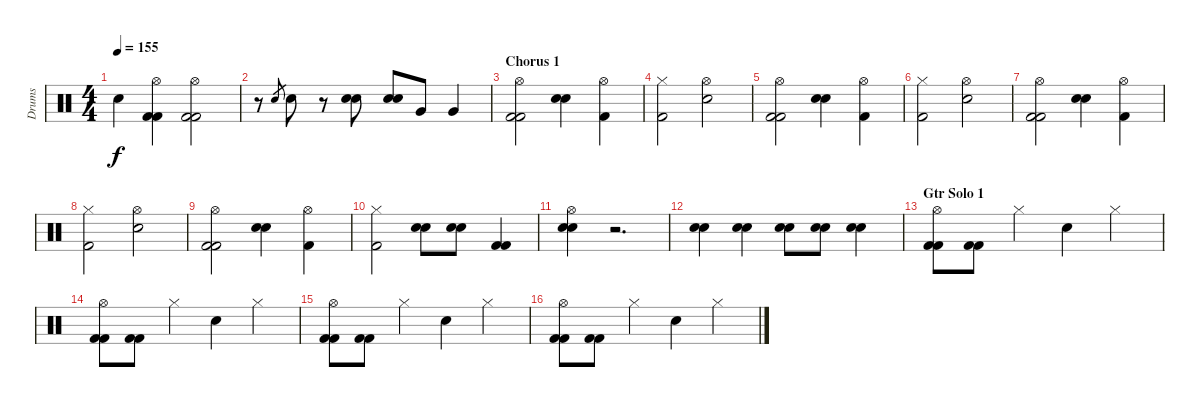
\track ("Drums" "Drums") {instrument percussion}
\staff {score}
\articulation defaults
\ts (4 4)
\tempo 155
\clef neutral
\ks c "Snare (hit) 2".4{dy f}
("Hi-Hat (open)" "Kick (hit) 2" "Kick (hit) 2").4 ("Hi-Hat (open)" "Kick (hit) 2" "Kick (hit) 2").2 |
r.8 "Snare (hit) 2".8{gr} "Snare (hit) 2".8 r.8 ("Snare (hit) 2" "Snare (hit) 2").8 ("Snare (hit) 2" "Snare (hit) 2").8 "Very Low Tom (hit)".8 "Very Low Tom (hit)".4 |
\section ("" "Chorus 1")
("Hi-Hat (open)" "Kick (hit) 2" "Kick (hit) 2").2 ("Snare (hit) 2" "Snare (hit) 2").4 ("Hi-Hat (open)" "Kick (hit) 2").4 |
("Hi-Hat (closed)" "Kick (hit) 2").2 ("Hi-Hat (open)" "Snare (hit) 2").2 |
("Hi-Hat (open)" "Kick (hit) 2" "Kick (hit) 2").2 ("Snare (hit) 2" "Snare (hit) 2").4 ("Hi-Hat (open)" "Kick (hit) 2").4 |
("Hi-Hat (closed)" "Kick (hit) 2").2 ("Hi-Hat (open)" "Snare (hit) 2").2 |
("Hi-Hat (open)" "Kick (hit) 2" "Kick (hit) 2").2 ("Snare (hit) 2" "Snare (hit) 2").4 ("Hi-Hat (open)" "Kick (hit) 2").4 |
("Hi-Hat (closed)" "Kick (hit) 2").2 ("Hi-Hat (open)" "Snare (hit) 2").2 |
("Hi-Hat (open)" "Kick (hit) 2" "Kick (hit) 2").2 ("Snare (hit) 2" "Snare (hit) 2").4 ("Hi-Hat (open)" "Kick (hit) 2").4 |
("Hi-Hat (closed)" "Kick (hit) 2").2 ("Snare (hit) 2" "Snare (hit) 2").8 ("Snare (hit) 2" "Snare (hit) 2").8 ("Kick (hit) 2" "Kick (hit) 2").4 |
("Hi-Hat (open)" "Snare (hit) 2" "Snare (hit) 2").4 r.2{d} |
("Snare (hit) 2" "Snare (hit) 2").4 ("Snare (hit) 2" "Snare (hit) 2").4 ("Snare (hit) 2" "Snare (hit) 2").8 ("Snare (hit) 2" "Snare (hit) 2").8 ("Snare (hit) 2" "Snare (hit) 2").4 |
\section ("" "Gtr Solo 1")
("Hi-Hat (open)" "Kick (hit) 2" "Kick (hit) 2").8 ("Kick (hit) 2" "Kick (hit) 2").8 "Hi-Hat (closed)".4 "Snare (hit) 2".4 "Hi-Hat (closed)".4 |
("Hi-Hat (open)" "Kick (hit) 2" "Kick (hit) 2").8 ("Kick (hit) 2" "Kick (hit) 2").8 "Hi-Hat (closed)".4 "Snare (hit) 2".4 "Hi-Hat (closed)".4 |
("Hi-Hat (open)" "Kick (hit) 2" "Kick (hit) 2").8 ("Kick (hit) 2" "Kick (hit) 2").8 "Hi-Hat (closed)".4 "Snare (hit) 2".4 "Hi-Hat (closed)".4 |
("Hi-Hat (open)" "Kick (hit) 2" "Kick (hit) 2").8 ("Kick (hit) 2" "Kick (hit) 2").8 "Hi-Hat (closed)".4 "Snare (hit) 2".4 "Hi-Hat (closed)".4
